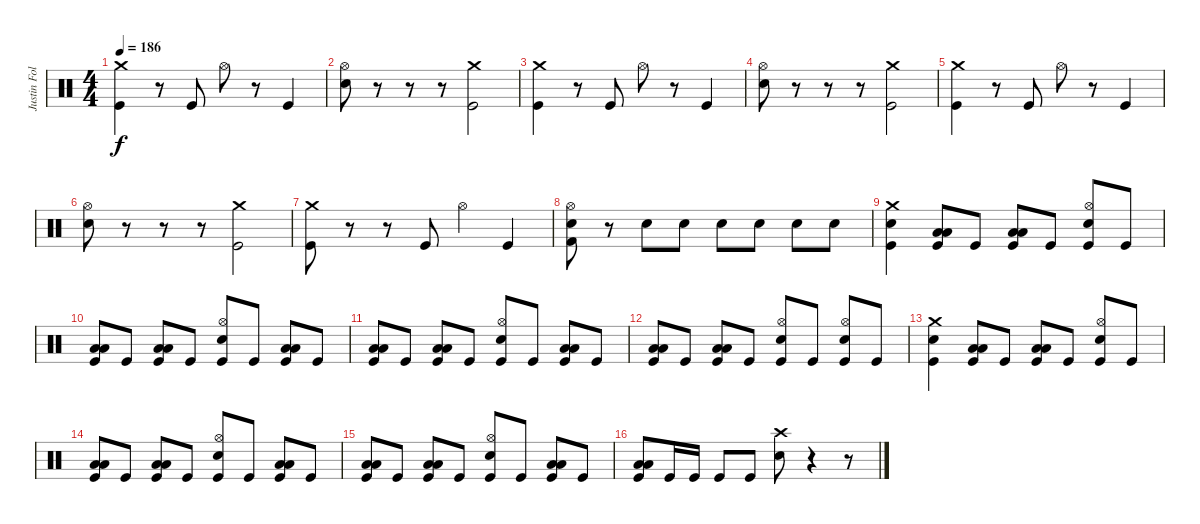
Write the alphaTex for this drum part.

\track ("Justin Foley" "Justin Fol") {instrument percussion}
\staff {score}
\articulation defaults
\ts (4 4)
\tempo 186
\clef neutral
\ks c
("Crash medium (hit)" "Kick (hit)").4{dy f} r.8 "Kick (hit)".8 "Hi-Hat (open)".8 r.8 "Kick (hit)".4 |
("Hi-Hat (open)" "Electric Snare (hit)").8 r.8 r.8 r.8 ("Crash medium (hit)" "Kick (hit)").2 |
("Crash medium (hit)" "Kick (hit)").4 r.8 "Kick (hit)".8 "Hi-Hat (open)".8 r.8 "Kick (hit)".4 |
("Hi-Hat (open)" "Electric Snare (hit)").8 r.8 r.8 r.8 ("Crash medium (hit)" "Kick (hit)").2 |
("Crash medium (hit)" "Kick (hit)").4 r.8 "Kick (hit)".8 "Hi-Hat (open)".8 r.8 "Kick (hit)".4 |
("Hi-Hat (open)" "Electric Snare (hit)").8 r.8 r.8 r.8 ("Crash medium (hit)" "Kick (hit)").2 |
("Crash medium (hit)" "Kick (hit)").8 r.8 r.8 "Kick (hit)".8 "Hi-Hat (open)".4 "Kick (hit)".4 |
("Hi-Hat (open)" "Electric Snare (hit)" "Kick (hit) 2").8 r.8 "Electric Snare (hit)".8 "Electric Snare (hit)".8 "Electric Snare (hit)".8 "Electric Snare (hit)".8 "Electric Snare (hit)".8 "Electric Snare (hit)".8 |
("Crash medium (hit)" "Electric Snare (hit)" "Kick (hit)").4 ("Low Tom (hit)" "Low Floor Tom (hit)" "Kick (hit)").8 "Kick (hit)".8 ("Low Tom (hit)" "Low Floor Tom (hit)" "Kick (hit)").8 "Kick (hit)".8 ("Hi-Hat (open)" "Electric Snare (hit)" "Kick (hit)").8 "Kick (hit)".8 |
("Low Tom (hit)" "Low Floor Tom (hit)" "Kick (hit)").8 "Kick (hit)".8 ("Low Tom (hit)" "Low Floor Tom (hit)" "Kick (hit)").8 "Kick (hit)".8 ("Hi-Hat (open)" "Electric Snare (hit)" "Kick (hit)").8 "Kick (hit)".8 ("Low Tom (hit)" "Low Floor Tom (hit)" "Kick (hit)").8 "Kick (hit)".8 |
("Low Tom (hit)" "Low Floor Tom (hit)" "Kick (hit)").8 "Kick (hit)".8 ("Low Tom (hit)" "Low Floor Tom (hit)" "Kick (hit)").8 "Kick (hit)".8 ("Hi-Hat (open)" "Electric Snare (hit)" "Kick (hit)").8 "Kick (hit)".8 ("Low Tom (hit)" "Low Floor Tom (hit)" "Kick (hit)").8 "Kick (hit)".8 |
("Low Tom (hit)" "Low Floor Tom (hit)" "Kick (hit)").8 "Kick (hit)".8 ("Low Tom (hit)" "Low Floor Tom (hit)" "Kick (hit)").8 "Kick (hit)".8 ("Hi-Hat (open)" "Electric Snare (hit)" "Kick (hit)").8 "Kick (hit)".8 ("Hi-Hat (open)" "Electric Snare (hit)" "Kick (hit)").8 "Kick (hit)".8 |
("Crash medium (hit)" "Electric Snare (hit)" "Kick (hit)").4 ("Low Tom (hit)" "Low Floor Tom (hit)" "Kick (hit)").8 "Kick (hit)".8 ("Low Tom (hit)" "Low Floor Tom (hit)" "Kick (hit)").8 "Kick (hit)".8 ("Hi-Hat (open)" "Electric Snare (hit)" "Kick (hit)").8 "Kick (hit)".8 |
("Low Tom (hit)" "Low Floor Tom (hit)" "Kick (hit)").8 "Kick (hit)".8 ("Low Tom (hit)" "Low Floor Tom (hit)" "Kick (hit)").8 "Kick (hit)".8 ("Hi-Hat (open)" "Electric Snare (hit)" "Kick (hit)").8 "Kick (hit)".8 ("Low Tom (hit)" "Low Floor Tom (hit)" "Kick (hit)").8 "Kick (hit)".8 |
("Low Tom (hit)" "Low Floor Tom (hit)" "Kick (hit)").8 "Kick (hit)".8 ("Low Tom (hit)" "Low Floor Tom (hit)" "Kick (hit)").8 "Kick (hit)".8 ("Hi-Hat (open)" "Electric Snare (hit)" "Kick (hit)").8 "Kick (hit)".8 ("Low Tom (hit)" "Low Floor Tom (hit)" "Kick (hit)").8 "Kick (hit)".8 |
("Low Tom (hit)" "Low Floor Tom (hit)" "Kick (hit)").8 "Kick (hit)".16 "Kick (hit)".16 "Kick (hit)".8 "Kick (hit)".8 ("Crash high (hit)" "Electric Snare (hit)").8 r.4 r.8
